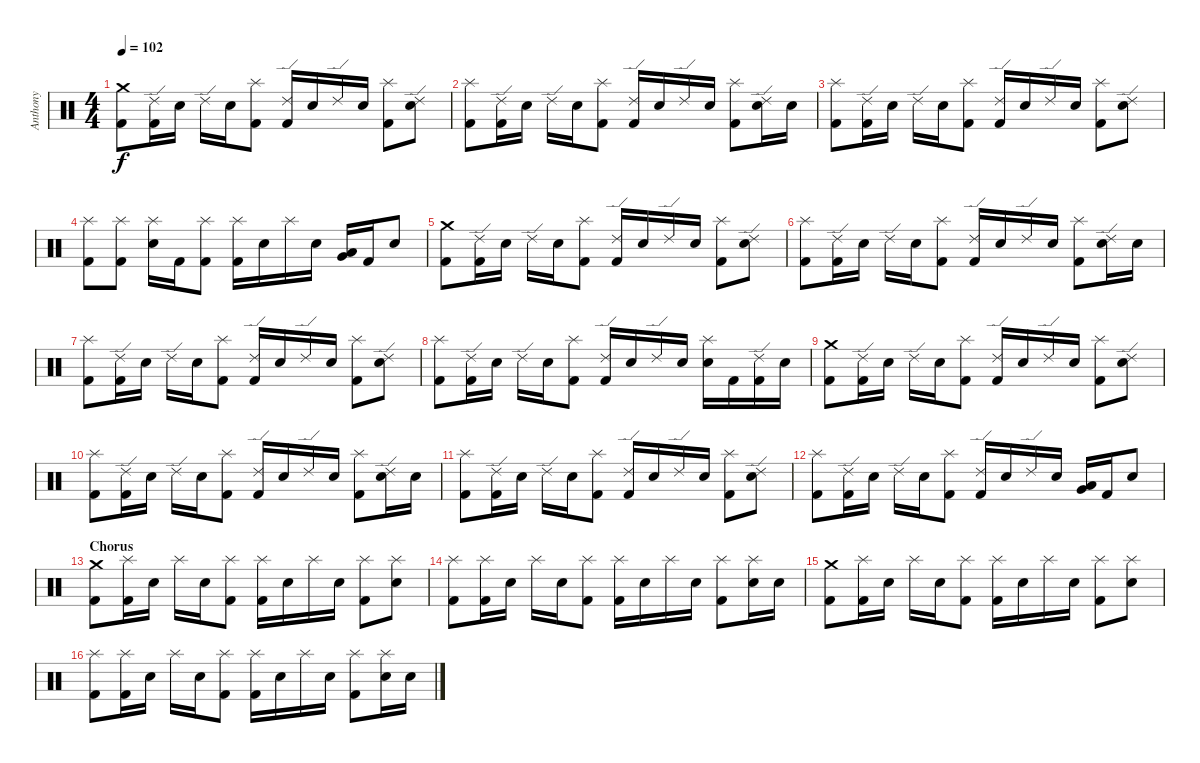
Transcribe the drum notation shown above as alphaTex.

\track ("Anthony" "Anthony") {instrument percussion}
\staff {score}
\articulation defaults
\ts (4 4)
\tempo 102
\clef neutral
\ks c
("Crash medium (hit)" "Kick (hit) 2").8{dy f} ("Ride (edge) 2" "Kick (hit) 2").16 "Electric Snare (hit)".16 "Ride (edge) 2".16 "Electric Snare (hit)".16 ("Splash (hit)" "Kick (hit) 2").8 ("Ride (edge) 2" "Kick (hit) 2").16 "Electric Snare (hit)".16 "Ride (edge) 2".16 "Electric Snare (hit)".16 ("Splash (hit)" "Kick (hit) 2").8 ("Ride (edge) 2" "Electric Snare (hit)").8 |
("Splash (hit)" "Kick (hit) 2").8 ("Ride (edge) 2" "Kick (hit) 2").16 "Electric Snare (hit)".16 "Ride (edge) 2".16 "Electric Snare (hit)".16 ("Splash (hit)" "Kick (hit) 2").8 ("Ride (edge) 2" "Kick (hit) 2").16 "Electric Snare (hit)".16 "Ride (edge) 2".16 "Electric Snare (hit)".16 ("Splash (hit)" "Kick (hit) 2").8 ("Ride (edge) 2" "Electric Snare (hit)").16 "Electric Snare (hit)".16 |
("Splash (hit)" "Kick (hit) 2").8 ("Ride (edge) 2" "Kick (hit) 2").16 "Electric Snare (hit)".16 "Ride (edge) 2".16 "Electric Snare (hit)".16 ("Splash (hit)" "Kick (hit) 2").8 ("Ride (edge) 2" "Kick (hit) 2").16 "Electric Snare (hit)".16 "Ride (edge) 2".16 "Electric Snare (hit)".16 ("Splash (hit)" "Kick (hit) 2").8 ("Ride (edge) 2" "Electric Snare (hit)").8 |
("Splash (hit)" "Kick (hit) 2").8 ("Splash (hit)" "Kick (hit) 2").8 ("Splash (hit)" "Electric Snare (hit)").16 "Kick (hit) 2".16 ("Splash (hit)" "Kick (hit) 2").8 ("Splash (hit)" "Kick (hit) 2").16 "Electric Snare (hit)".16 "Splash (hit)".16 "Electric Snare (hit)".16 ("Low Floor Tom (hit)" "Very Low Tom (hit)").16 "Kick (hit) 2".16 "Electric Snare (hit)".8 |
("Crash medium (hit)" "Kick (hit) 2").8 ("Ride (edge) 2" "Kick (hit) 2").16 "Electric Snare (hit)".16 "Ride (edge) 2".16 "Electric Snare (hit)".16 ("Splash (hit)" "Kick (hit) 2").8 ("Ride (edge) 2" "Kick (hit) 2").16 "Electric Snare (hit)".16 "Ride (edge) 2".16 "Electric Snare (hit)".16 ("Splash (hit)" "Kick (hit) 2").8 ("Ride (edge) 2" "Electric Snare (hit)").8 |
("Splash (hit)" "Kick (hit) 2").8 ("Ride (edge) 2" "Kick (hit) 2").16 "Electric Snare (hit)".16 "Ride (edge) 2".16 "Electric Snare (hit)".16 ("Splash (hit)" "Kick (hit) 2").8 ("Ride (edge) 2" "Kick (hit) 2").16 "Electric Snare (hit)".16 "Ride (edge) 2".16 "Electric Snare (hit)".16 ("Splash (hit)" "Kick (hit) 2").8 ("Ride (edge) 2" "Electric Snare (hit)").16 "Electric Snare (hit)".16 |
("Splash (hit)" "Kick (hit) 2").8 ("Ride (edge) 2" "Kick (hit) 2").16 "Electric Snare (hit)".16 "Ride (edge) 2".16 "Electric Snare (hit)".16 ("Splash (hit)" "Kick (hit) 2").8 ("Ride (edge) 2" "Kick (hit) 2").16 "Electric Snare (hit)".16 "Ride (edge) 2".16 "Electric Snare (hit)".16 ("Splash (hit)" "Kick (hit) 2").8 ("Ride (edge) 2" "Electric Snare (hit)").8 |
("Splash (hit)" "Kick (hit) 2").8 ("Ride (edge) 2" "Kick (hit) 2").16 "Electric Snare (hit)".16 "Ride (edge) 2".16 "Electric Snare (hit)".16 ("Splash (hit)" "Kick (hit) 2").8 ("Ride (edge) 2" "Kick (hit) 2").16 "Electric Snare (hit)".16 "Ride (edge) 2".16 "Electric Snare (hit)".16 ("Splash (hit)" "Electric Snare (hit)").16 "Kick (hit) 2".16 ("Ride (edge) 2" "Kick (hit) 2").16 "Electric Snare (hit)".16 |
("Crash medium (hit)" "Kick (hit) 2").8 ("Ride (edge) 2" "Kick (hit) 2").16 "Electric Snare (hit)".16 "Ride (edge) 2".16 "Electric Snare (hit)".16 ("Splash (hit)" "Kick (hit) 2").8 ("Ride (edge) 2" "Kick (hit) 2").16 "Electric Snare (hit)".16 "Ride (edge) 2".16 "Electric Snare (hit)".16 ("Splash (hit)" "Kick (hit) 2").8 ("Ride (edge) 2" "Electric Snare (hit)").8 |
("Splash (hit)" "Kick (hit) 2").8 ("Ride (edge) 2" "Kick (hit) 2").16 "Electric Snare (hit)".16 "Ride (edge) 2".16 "Electric Snare (hit)".16 ("Splash (hit)" "Kick (hit) 2").8 ("Ride (edge) 2" "Kick (hit) 2").16 "Electric Snare (hit)".16 "Ride (edge) 2".16 "Electric Snare (hit)".16 ("Splash (hit)" "Kick (hit) 2").8 ("Ride (edge) 2" "Electric Snare (hit)").16 "Electric Snare (hit)".16 |
("Splash (hit)" "Kick (hit) 2").8 ("Ride (edge) 2" "Kick (hit) 2").16 "Electric Snare (hit)".16 "Ride (edge) 2".16 "Electric Snare (hit)".16 ("Splash (hit)" "Kick (hit) 2").8 ("Ride (edge) 2" "Kick (hit) 2").16 "Electric Snare (hit)".16 "Ride (edge) 2".16 "Electric Snare (hit)".16 ("Splash (hit)" "Kick (hit) 2").8 ("Ride (edge) 2" "Electric Snare (hit)").8 |
("Splash (hit)" "Kick (hit) 2").8 ("Ride (edge) 2" "Kick (hit) 2").16 "Electric Snare (hit)".16 "Ride (edge) 2".16 "Electric Snare (hit)".16 ("Splash (hit)" "Kick (hit) 2").8 ("Ride (edge) 2" "Kick (hit) 2").16 "Electric Snare (hit)".16 "Ride (edge) 2".16 "Electric Snare (hit)".16 ("Low Floor Tom (hit)" "Very Low Tom (hit)").16 "Kick (hit) 2".16 "Electric Snare (hit)".8 |
\section ("" "Chorus")
("Crash medium (hit)" "Kick (hit) 2").8 ("Splash (hit)" "Kick (hit) 2").16 "Electric Snare (hit)".16 "Splash (hit)".16 "Electric Snare (hit)".16 ("Splash (hit)" "Kick (hit) 2").8 ("Splash (hit)" "Kick (hit) 2").16 "Electric Snare (hit)".16 "Splash (hit)".16 "Electric Snare (hit)".16 ("Splash (hit)" "Kick (hit) 2").8 ("Splash (hit)" "Electric Snare (hit)").8 |
("Splash (hit)" "Kick (hit) 2").8 ("Splash (hit)" "Kick (hit) 2").16 "Electric Snare (hit)".16 "Splash (hit)".16 "Electric Snare (hit)".16 ("Splash (hit)" "Kick (hit) 2").8 ("Splash (hit)" "Kick (hit) 2").16 "Electric Snare (hit)".16 "Splash (hit)".16 "Electric Snare (hit)".16 ("Splash (hit)" "Kick (hit) 2").8 ("Splash (hit)" "Electric Snare (hit)").16 "Electric Snare (hit)".16 |
("Crash medium (hit)" "Kick (hit) 2").8 ("Splash (hit)" "Kick (hit) 2").16 "Electric Snare (hit)".16 "Splash (hit)".16 "Electric Snare (hit)".16 ("Splash (hit)" "Kick (hit) 2").8 ("Splash (hit)" "Kick (hit) 2").16 "Electric Snare (hit)".16 "Splash (hit)".16 "Electric Snare (hit)".16 ("Splash (hit)" "Kick (hit) 2").8 ("Splash (hit)" "Electric Snare (hit)").8 |
("Splash (hit)" "Kick (hit) 2").8 ("Splash (hit)" "Kick (hit) 2").16 "Electric Snare (hit)".16 "Splash (hit)".16 "Electric Snare (hit)".16 ("Splash (hit)" "Kick (hit) 2").8 ("Splash (hit)" "Kick (hit) 2").16 "Electric Snare (hit)".16 "Splash (hit)".16 "Electric Snare (hit)".16 ("Splash (hit)" "Kick (hit) 2").8 ("Splash (hit)" "Electric Snare (hit)").16 "Electric Snare (hit)".16
